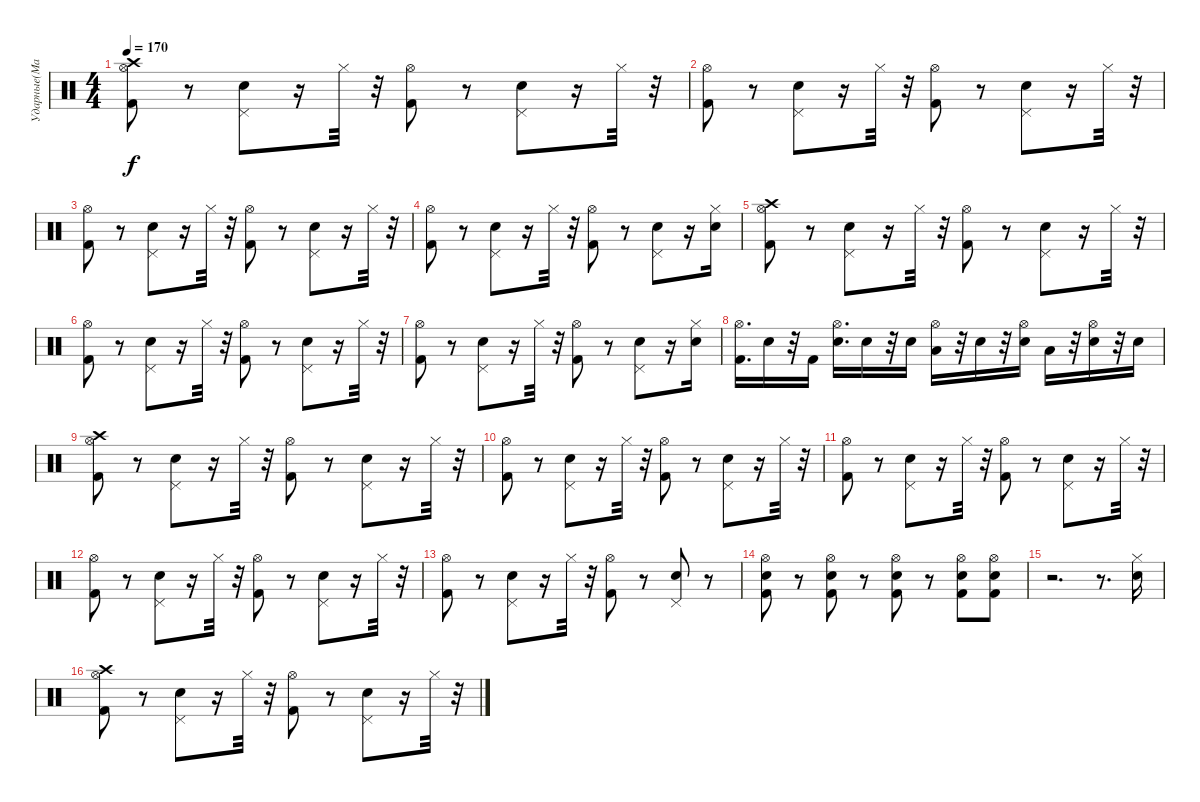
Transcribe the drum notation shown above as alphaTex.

\track ("Ударные(Май)" "Ударные(Ма") {instrument percussion}
\staff {score}
\articulation defaults
\ts (4 4)
\tempo 170
\clef neutral
\ks c
("Crash high (hit)" "Hi-Hat (open)" "Kick (hit) 2").8{dy f} r.8 ("Electric Snare (hit)" "Pedal Hi-Hat (hit)").8 r.16 "Hi-Hat (closed)".32 r.32 ("Kick (hit) 2" "Hi-Hat (open)").8 r.8 ("Electric Snare (hit)" "Pedal Hi-Hat (hit)").8 r.16 "Hi-Hat (closed)".32 r.32 |
("Hi-Hat (open)" "Kick (hit) 2").8 r.8 ("Electric Snare (hit)" "Pedal Hi-Hat (hit)").8 r.16 "Hi-Hat (closed)".32 r.32 ("Kick (hit) 2" "Hi-Hat (open)").8 r.8 ("Electric Snare (hit)" "Pedal Hi-Hat (hit)").8 r.16 "Hi-Hat (closed)".32 r.32 |
("Hi-Hat (open)" "Kick (hit) 2").8 r.8 ("Electric Snare (hit)" "Pedal Hi-Hat (hit)").8 r.16 "Hi-Hat (closed)".32 r.32 ("Kick (hit) 2" "Hi-Hat (open)").8 r.8 ("Electric Snare (hit)" "Pedal Hi-Hat (hit)").8 r.16 "Hi-Hat (closed)".32 r.32 |
("Hi-Hat (open)" "Kick (hit) 2").8 r.8 ("Electric Snare (hit)" "Pedal Hi-Hat (hit)").8 r.16 "Hi-Hat (closed)".32 r.32 ("Kick (hit) 2" "Hi-Hat (open)").8 r.8 ("Electric Snare (hit)" "Pedal Hi-Hat (hit)").8 r.16 ("Hi-Hat (closed)" "Electric Snare (hit)").16 |
("Crash high (hit)" "Hi-Hat (open)" "Kick (hit) 2").8 r.8 ("Electric Snare (hit)" "Pedal Hi-Hat (hit)").8 r.16 "Hi-Hat (closed)".32 r.32 ("Kick (hit) 2" "Hi-Hat (open)").8 r.8 ("Electric Snare (hit)" "Pedal Hi-Hat (hit)").8 r.16 "Hi-Hat (closed)".32 r.32 |
("Hi-Hat (open)" "Kick (hit) 2").8 r.8 ("Electric Snare (hit)" "Pedal Hi-Hat (hit)").8 r.16 "Hi-Hat (closed)".32 r.32 ("Kick (hit) 2" "Hi-Hat (open)").8 r.8 ("Electric Snare (hit)" "Pedal Hi-Hat (hit)").8 r.16 "Hi-Hat (closed)".32 r.32 |
("Hi-Hat (open)" "Kick (hit) 2").8 r.8 ("Electric Snare (hit)" "Pedal Hi-Hat (hit)").8 r.16 "Hi-Hat (closed)".32 r.32 ("Kick (hit) 2" "Hi-Hat (open)").8 r.8 ("Electric Snare (hit)" "Pedal Hi-Hat (hit)").8 r.16 ("Hi-Hat (closed)" "Electric Snare (hit)").16 |
("Kick (hit) 2" "Hi-Hat (open)").16{d} "Electric Snare (hit)".16 r.32 "Kick (hit) 2".16 ("Electric Snare (hit)" "Hi-Hat (open)").16{d} "Snare (hit) 2".16 r.32 "Electric Snare (hit)".16 ("Hi-Hat (open)" "Low Floor Tom (hit)").16 r.32 "Snare (hit) 2".16 r.32 ("Hi-Hat (open)" "Electric Snare (hit)").16 "Low Floor Tom (hit)".16 r.32 ("Hi-Hat (open)" "Snare (hit) 2").16 r.32 "Electric Snare (hit)".16 |
("Crash high (hit)" "Hi-Hat (open)" "Kick (hit) 2").8 r.8 ("Electric Snare (hit)" "Pedal Hi-Hat (hit)").8 r.16 "Hi-Hat (closed)".32 r.32 ("Kick (hit) 2" "Hi-Hat (open)").8 r.8 ("Electric Snare (hit)" "Pedal Hi-Hat (hit)").8 r.16 "Hi-Hat (closed)".32 r.32 |
("Hi-Hat (open)" "Kick (hit) 2").8 r.8 ("Electric Snare (hit)" "Pedal Hi-Hat (hit)").8 r.16 "Hi-Hat (closed)".32 r.32 ("Kick (hit) 2" "Hi-Hat (open)").8 r.8 ("Electric Snare (hit)" "Pedal Hi-Hat (hit)").8 r.16 "Hi-Hat (closed)".32 r.32 |
("Hi-Hat (open)" "Kick (hit) 2").8 r.8 ("Electric Snare (hit)" "Pedal Hi-Hat (hit)").8 r.16 "Hi-Hat (closed)".32 r.32 ("Kick (hit) 2" "Hi-Hat (open)").8 r.8 ("Electric Snare (hit)" "Pedal Hi-Hat (hit)").8 r.16 "Hi-Hat (closed)".32 r.32 |
("Hi-Hat (open)" "Kick (hit) 2").8 r.8 ("Electric Snare (hit)" "Pedal Hi-Hat (hit)").8 r.16 "Hi-Hat (closed)".32 r.32 ("Kick (hit) 2" "Hi-Hat (open)").8 r.8 ("Electric Snare (hit)" "Pedal Hi-Hat (hit)").8 r.16 "Hi-Hat (closed)".32 r.32 |
("Hi-Hat (open)" "Kick (hit) 2").8 r.8 ("Electric Snare (hit)" "Pedal Hi-Hat (hit)").8 r.16 "Hi-Hat (closed)".32 r.32 ("Kick (hit) 2" "Hi-Hat (open)").8 r.8 ("Electric Snare (hit)" "Pedal Hi-Hat (hit)").8 r.8 |
("Kick (hit) 2" "Electric Snare (hit)" "Hi-Hat (open)").8 r.8 ("Kick (hit) 2" "Electric Snare (hit)" "Hi-Hat (open)").8 r.8 ("Kick (hit) 2" "Electric Snare (hit)" "Hi-Hat (open)").8 r.8 ("Kick (hit) 2" "Electric Snare (hit)" "Hi-Hat (open)").8 ("Hi-Hat (open)" "Electric Snare (hit)" "Kick (hit) 2").8 |
r.2{d} r.8{d} ("Electric Snare (hit)" "Hi-Hat (closed)").16 |
("Crash high (hit)" "Hi-Hat (open)" "Kick (hit) 2").8 r.8 ("Electric Snare (hit)" "Pedal Hi-Hat (hit)").8 r.16 "Hi-Hat (closed)".32 r.32 ("Kick (hit) 2" "Hi-Hat (open)").8 r.8 ("Electric Snare (hit)" "Pedal Hi-Hat (hit)").8 r.16 "Hi-Hat (closed)".32 r.32
